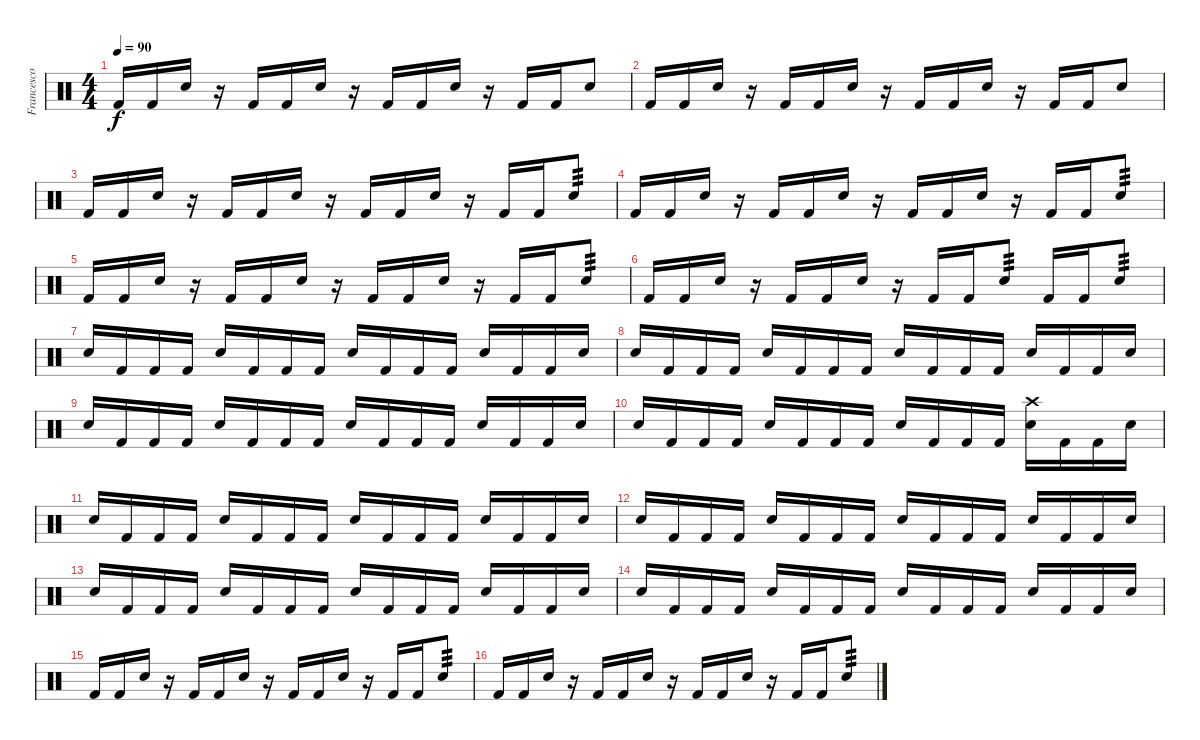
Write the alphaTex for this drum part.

\track ("Francesco -Franz- Valente" "Francesco ") {instrument percussion}
\staff {score}
\articulation defaults
\ts (4 4)
\tempo 90
\clef neutral
\ks c "Kick (hit) 2".16{dy f} "Kick (hit) 2".16 "Electric Snare (hit)".16
r.16 "Kick (hit) 2".16 "Kick (hit) 2".16 "Electric Snare (hit)".16 r.16 "Kick (hit) 2".16 "Kick (hit) 2".16 "Electric Snare (hit)".16 r.16 "Kick (hit) 2".16 "Kick (hit) 2".16 "Electric Snare (hit)".8 |
"Kick (hit) 2".16 "Kick (hit) 2".16 "Electric Snare (hit)".16 r.16 "Kick (hit) 2".16 "Kick (hit) 2".16 "Electric Snare (hit)".16 r.16 "Kick (hit) 2".16 "Kick (hit) 2".16 "Electric Snare (hit)".16 r.16 "Kick (hit) 2".16 "Kick (hit) 2".16 "Electric Snare (hit)".8 |
"Kick (hit) 2".16 "Kick (hit) 2".16 "Electric Snare (hit)".16 r.16 "Kick (hit) 2".16 "Kick (hit) 2".16 "Electric Snare (hit)".16 r.16 "Kick (hit) 2".16 "Kick (hit) 2".16 "Electric Snare (hit)".16 r.16 "Kick (hit) 2".16 "Kick (hit) 2".16 "Electric Snare (hit)".8{tp 3} |
"Kick (hit) 2".16 "Kick (hit) 2".16 "Electric Snare (hit)".16 r.16 "Kick (hit) 2".16 "Kick (hit) 2".16 "Electric Snare (hit)".16 r.16 "Kick (hit) 2".16 "Kick (hit) 2".16 "Electric Snare (hit)".16 r.16 "Kick (hit) 2".16 "Kick (hit) 2".16 "Electric Snare (hit)".8{tp 3} |
"Kick (hit) 2".16 "Kick (hit) 2".16 "Electric Snare (hit)".16 r.16 "Kick (hit) 2".16 "Kick (hit) 2".16 "Electric Snare (hit)".16 r.16 "Kick (hit) 2".16 "Kick (hit) 2".16 "Electric Snare (hit)".16 r.16 "Kick (hit) 2".16 "Kick (hit) 2".16 "Electric Snare (hit)".8{tp 3} |
"Kick (hit) 2".16 "Kick (hit) 2".16 "Electric Snare (hit)".16 r.16 "Kick (hit) 2".16 "Kick (hit) 2".16 "Electric Snare (hit)".16 r.16 "Kick (hit) 2".16 "Kick (hit) 2".16 "Electric Snare (hit)".8{tp 3} "Kick (hit) 2".16 "Kick (hit) 2".16 "Electric Snare (hit)".8{tp 3} |
"Snare (hit) 2".16 "Kick (hit) 2".16 "Kick (hit) 2".16 "Kick (hit) 2".16 "Snare (hit) 2".16 "Kick (hit) 2".16 "Kick (hit) 2".16 "Kick (hit) 2".16 "Snare (hit) 2".16 "Kick (hit) 2".16 "Kick (hit) 2".16 "Kick (hit) 2".16 "Snare (hit) 2".16 "Kick (hit) 2".16 "Kick (hit) 2".16 "Snare (hit) 2".16 |
"Snare (hit) 2".16 "Kick (hit) 2".16 "Kick (hit) 2".16 "Kick (hit) 2".16 "Snare (hit) 2".16 "Kick (hit) 2".16 "Kick (hit) 2".16 "Kick (hit) 2".16 "Snare (hit) 2".16 "Kick (hit) 2".16 "Kick (hit) 2".16 "Kick (hit) 2".16 "Snare (hit) 2".16 "Kick (hit) 2".16 "Kick (hit) 2".16 "Snare (hit) 2".16 |
"Snare (hit) 2".16 "Kick (hit) 2".16 "Kick (hit) 2".16 "Kick (hit) 2".16 "Snare (hit) 2".16 "Kick (hit) 2".16 "Kick (hit) 2".16 "Kick (hit) 2".16 "Snare (hit) 2".16 "Kick (hit) 2".16 "Kick (hit) 2".16 "Kick (hit) 2".16 "Snare (hit) 2".16 "Kick (hit) 2".16 "Kick (hit) 2".16 "Snare (hit) 2".16 |
"Snare (hit) 2".16 "Kick (hit) 2".16 "Kick (hit) 2".16 "Kick (hit) 2".16 "Snare (hit) 2".16 "Kick (hit) 2".16 "Kick (hit) 2".16 "Kick (hit) 2".16 "Snare (hit) 2".16 "Kick (hit) 2".16 "Kick (hit) 2".16 "Kick (hit) 2".16 ("Crash high (hit)" "Snare (hit) 2").16 "Kick (hit) 2".16 "Kick (hit) 2".16 "Snare (hit) 2".16 |
"Snare (hit) 2".16 "Kick (hit) 2".16 "Kick (hit) 2".16 "Kick (hit) 2".16 "Snare (hit) 2".16 "Kick (hit) 2".16 "Kick (hit) 2".16 "Kick (hit) 2".16 "Snare (hit) 2".16 "Kick (hit) 2".16 "Kick (hit) 2".16 "Kick (hit) 2".16 "Snare (hit) 2".16 "Kick (hit) 2".16 "Kick (hit) 2".16 "Snare (hit) 2".16 |
"Snare (hit) 2".16 "Kick (hit) 2".16 "Kick (hit) 2".16 "Kick (hit) 2".16 "Snare (hit) 2".16 "Kick (hit) 2".16 "Kick (hit) 2".16 "Kick (hit) 2".16 "Snare (hit) 2".16 "Kick (hit) 2".16 "Kick (hit) 2".16 "Kick (hit) 2".16 "Snare (hit) 2".16 "Kick (hit) 2".16 "Kick (hit) 2".16 "Snare (hit) 2".16 |
"Snare (hit) 2".16 "Kick (hit) 2".16 "Kick (hit) 2".16 "Kick (hit) 2".16 "Snare (hit) 2".16 "Kick (hit) 2".16 "Kick (hit) 2".16 "Kick (hit) 2".16 "Snare (hit) 2".16 "Kick (hit) 2".16 "Kick (hit) 2".16 "Kick (hit) 2".16 "Snare (hit) 2".16 "Kick (hit) 2".16 "Kick (hit) 2".16 "Snare (hit) 2".16 |
"Snare (hit) 2".16 "Kick (hit) 2".16 "Kick (hit) 2".16 "Kick (hit) 2".16 "Snare (hit) 2".16 "Kick (hit) 2".16 "Kick (hit) 2".16 "Kick (hit) 2".16 "Snare (hit) 2".16 "Kick (hit) 2".16 "Kick (hit) 2".16 "Kick (hit) 2".16 "Snare (hit) 2".16 "Kick (hit) 2".16 "Kick (hit) 2".16 "Snare (hit) 2".16 |
"Kick (hit) 2".16 "Kick (hit) 2".16 "Electric Snare (hit)".16 r.16 "Kick (hit) 2".16 "Kick (hit) 2".16 "Electric Snare (hit)".16 r.16 "Kick (hit) 2".16 "Kick (hit) 2".16 "Electric Snare (hit)".16 r.16 "Kick (hit) 2".16 "Kick (hit) 2".16 "Electric Snare (hit)".8{tp 3} |
"Kick (hit) 2".16 "Kick (hit) 2".16 "Electric Snare (hit)".16 r.16 "Kick (hit) 2".16 "Kick (hit) 2".16 "Electric Snare (hit)".16 r.16 "Kick (hit) 2".16 "Kick (hit) 2".16 "Electric Snare (hit)".16 r.16 "Kick (hit) 2".16 "Kick (hit) 2".16 "Electric Snare (hit)".8{tp 3}
